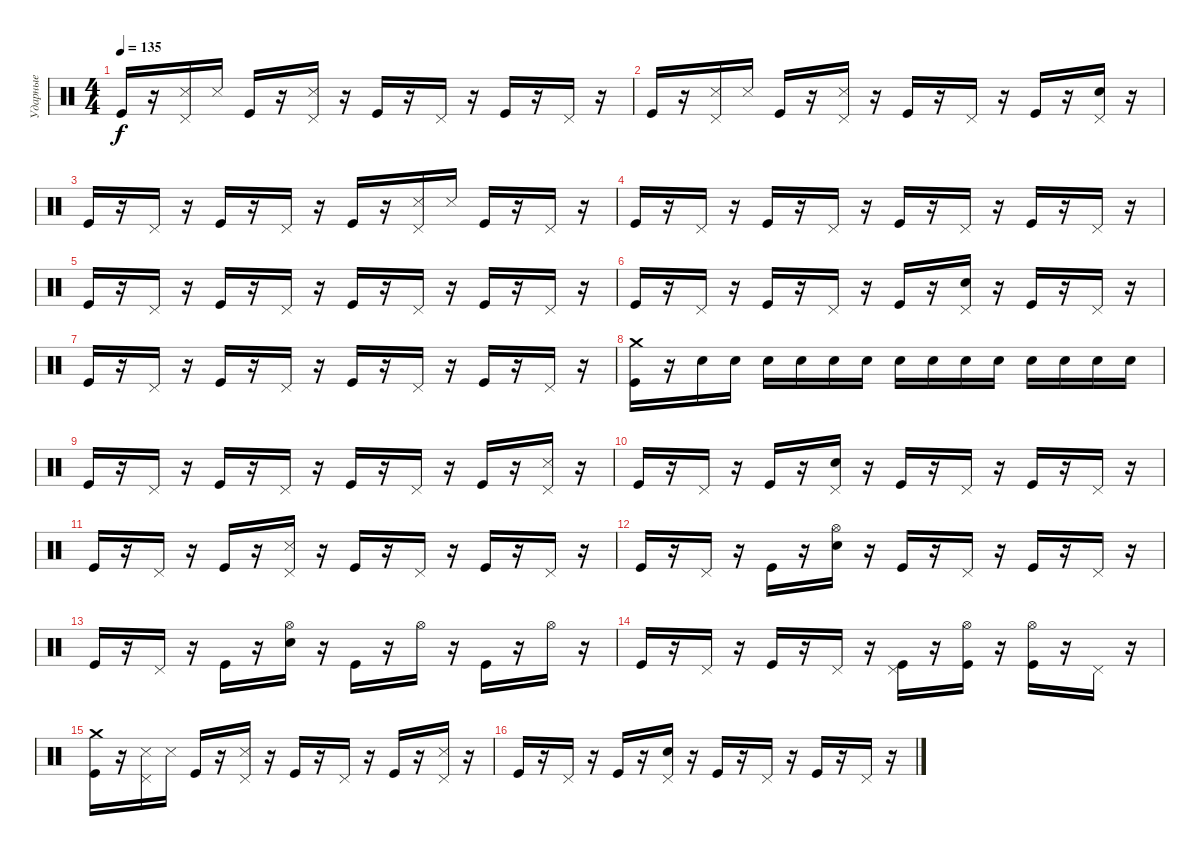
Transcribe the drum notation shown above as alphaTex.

\track ("Ударные" "Ударные") {instrument percussion}
\staff {score}
\articulation defaults
\ts (4 4)
\tempo 135
\clef neutral
\ks c "Kick (hit)".16{dy f}
r.16 ("Snare (side stick) 3" "Pedal Hi-Hat (hit)").16 "Snare (side stick) 3".16 "Kick (hit)".16 r.16 ("Snare (side stick) 3" "Pedal Hi-Hat (hit)").16 r.16 "Kick (hit)".16 r.16 "Pedal Hi-Hat (hit)".16 r.16 "Kick (hit)".16 r.16 "Pedal Hi-Hat (hit)".16 r.16 |
"Kick (hit)".16 r.16 ("Snare (side stick) 3" "Pedal Hi-Hat (hit)").16 "Snare (side stick) 3".16 "Kick (hit)".16 r.16 ("Snare (side stick) 3" "Pedal Hi-Hat (hit)").16 r.16 "Kick (hit)".16 r.16 "Pedal Hi-Hat (hit)".16 r.16 "Kick (hit)".16 r.16 ("Snare (hit) 2" "Pedal Hi-Hat (hit)").16 r.16 |
"Kick (hit)".16 r.16 "Pedal Hi-Hat (hit)".16 r.16 "Kick (hit)".16 r.16 "Pedal Hi-Hat (hit)".16 r.16 "Kick (hit)".16 r.16 ("Snare (side stick) 3" "Pedal Hi-Hat (hit)").16 "Snare (side stick) 3".16 "Kick (hit)".16 r.16 "Pedal Hi-Hat (hit)".16 r.16 |
"Kick (hit)".16 r.16 "Pedal Hi-Hat (hit)".16 r.16 "Kick (hit)".16 r.16 "Pedal Hi-Hat (hit)".16 r.16 "Kick (hit)".16 r.16 "Pedal Hi-Hat (hit)".16 r.16 "Kick (hit)".16 r.16 "Pedal Hi-Hat (hit)".16 r.16 |
"Kick (hit)".16 r.16 "Pedal Hi-Hat (hit)".16 r.16 "Kick (hit)".16 r.16 "Pedal Hi-Hat (hit)".16 r.16 "Kick (hit)".16 r.16 "Pedal Hi-Hat (hit)".16 r.16 "Kick (hit)".16 r.16 "Pedal Hi-Hat (hit)".16 r.16 |
"Kick (hit)".16 r.16 "Pedal Hi-Hat (hit)".16 r.16 "Kick (hit)".16 r.16 "Pedal Hi-Hat (hit)".16 r.16 "Kick (hit)".16 r.16 ("Snare (hit) 2" "Pedal Hi-Hat (hit)").16 r.16 "Kick (hit)".16 r.16 "Pedal Hi-Hat (hit)".16 r.16 |
"Kick (hit)".16 r.16 "Pedal Hi-Hat (hit)".16 r.16 "Kick (hit)".16 r.16 "Pedal Hi-Hat (hit)".16 r.16 "Kick (hit)".16 r.16 "Pedal Hi-Hat (hit)".16 r.16 "Kick (hit)".16 r.16 "Pedal Hi-Hat (hit)".16 r.16 |
("Crash medium (hit)" "Kick (hit)").16 r.16 "Electric Snare (hit)".16 "Electric Snare (hit)".16 "Electric Snare (hit)".16 "Electric Snare (hit)".16 "Electric Snare (hit)".16 "Electric Snare (hit)".16 "Electric Snare (hit)".16 "Electric Snare (hit)".16 "Electric Snare (hit)".16 "Electric Snare (hit)".16 "Electric Snare (hit)".16 "Electric Snare (hit)".16 "Electric Snare (hit)".16 "Electric Snare (hit)".16 |
"Kick (hit)".16 r.16 "Pedal Hi-Hat (hit)".16 r.16 "Kick (hit)".16 r.16 "Pedal Hi-Hat (hit)".16 r.16 "Kick (hit)".16 r.16 "Pedal Hi-Hat (hit)".16 r.16 "Kick (hit)".16 r.16 ("Snare (side stick) 3" "Pedal Hi-Hat (hit)").16 r.16 |
"Kick (hit)".16 r.16 "Pedal Hi-Hat (hit)".16 r.16 "Kick (hit)".16 r.16 ("Snare (hit) 2" "Pedal Hi-Hat (hit)").16 r.16 "Kick (hit)".16 r.16 "Pedal Hi-Hat (hit)".16 r.16 "Kick (hit)".16 r.16 "Pedal Hi-Hat (hit)".16 r.16 |
"Kick (hit)".16 r.16 "Pedal Hi-Hat (hit)".16 r.16 "Kick (hit)".16 r.16 ("Snare (side stick) 3" "Pedal Hi-Hat (hit)").16 r.16 "Kick (hit)".16 r.16 "Pedal Hi-Hat (hit)".16 r.16 "Kick (hit)".16 r.16 "Pedal Hi-Hat (hit)".16 r.16 |
"Kick (hit)".16 r.16 "Pedal Hi-Hat (hit)".16 r.16 "Kick (hit)".16 r.16 ("Snare (hit) 2" "Hi-Hat (open)").16 r.16 "Kick (hit)".16 r.16 "Pedal Hi-Hat (hit)".16 r.16 "Kick (hit)".16 r.16 "Pedal Hi-Hat (hit)".16 r.16 |
"Kick (hit)".16 r.16 "Pedal Hi-Hat (hit)".16 r.16 "Kick (hit)".16 r.16 ("Snare (hit) 2" "Hi-Hat (open)").16 r.16 "Kick (hit)".16 r.16 "Hi-Hat (open)".16 r.16 "Kick (hit)".16 r.16 "Hi-Hat (open)".16 r.16 |
"Kick (hit)".16 r.16 "Pedal Hi-Hat (hit)".16 r.16 "Kick (hit)".16 r.16 "Pedal Hi-Hat (hit)".16 r.16 ("Pedal Hi-Hat (hit)" "Kick (hit)").16 r.16 ("Hi-Hat (open)" "Kick (hit)").16 r.16 ("Hi-Hat (open)" "Kick (hit)").16 r.16 "Pedal Hi-Hat (hit)".16 r.16 |
("Crash medium (hit)" "Kick (hit)").16 r.16 ("Snare (side stick) 3" "Pedal Hi-Hat (hit)").16 "Snare (side stick) 3".16 "Kick (hit)".16 r.16 ("Snare (side stick) 3" "Pedal Hi-Hat (hit)").16 r.16 "Kick (hit)".16 r.16 "Pedal Hi-Hat (hit)".16 r.16 "Kick (hit)".16 r.16 ("Snare (side stick) 3" "Pedal Hi-Hat (hit)").16 r.16 |
"Kick (hit)".16 r.16 "Pedal Hi-Hat (hit)".16 r.16 "Kick (hit)".16 r.16 ("Snare (hit) 2" "Pedal Hi-Hat (hit)").16 r.16 "Kick (hit)".16 r.16 "Pedal Hi-Hat (hit)".16 r.16 "Kick (hit)".16 r.16 "Pedal Hi-Hat (hit)".16 r.16
